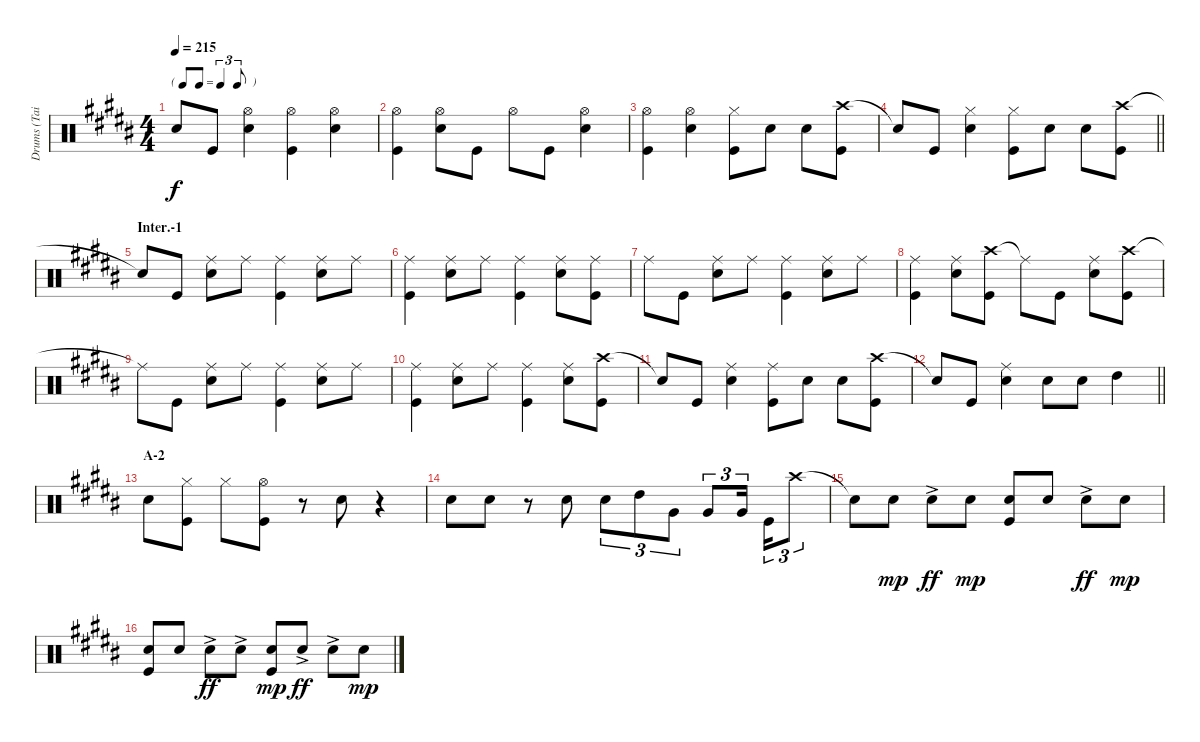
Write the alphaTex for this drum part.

\track ("Drums (Tainaka Ritsu)" "Drums (Tai") {instrument percussion}
\staff {score}
\articulation defaults
\ts (4 4)
\tf triplet8th
\tempo 215
\clef neutral
\ks b "Snare (hit)"{t}.8{dy f} "Kick (hit)".8
("Hi-Hat (open)" "Snare (hit) 2").4 ("Hi-Hat (open)" "Kick (hit)").4 ("Hi-Hat (open)" "Snare (hit) 2").4 |
("Hi-Hat (open)" "Kick (hit)").4 ("Hi-Hat (open)" "Snare (hit) 2").8 "Kick (hit)".8 "Hi-Hat (open)".8 "Kick (hit)".8 ("Hi-Hat (open)" "Snare (hit) 2").4 |
("Hi-Hat (open)" "Kick (hit)").4 ("Hi-Hat (open)" "Snare (hit) 2").4 ("Hi-Hat (closed)" "Kick (hit)").8 "Snare (hit) 2".8 "Snare (hit) 2".8 ("Crash high (hit)" "Kick (hit)").8 |
\barLineRight lightlight "Snare (hit)"{t}.8 "Kick (hit)".8
("Hi-Hat (closed)" "Snare (hit) 2").4 ("Hi-Hat (closed)" "Kick (hit)").8 "Snare (hit) 2".8 "Snare (hit) 2".8 ("Crash high (hit)" "Kick (hit)").8 |
\section ("" "Inter.-1")
"Snare (hit)"{t}.8 "Kick (hit)".8 ("Ride (middle)" "Snare (hit) 2").8 "Ride (middle)".8 ("Ride (middle)" "Kick (hit)").4 ("Ride (middle)" "Snare (hit) 2").8 "Ride (middle)".8 |
("Ride (middle)" "Kick (hit)").4 ("Ride (middle)" "Snare (hit) 2").8 "Ride (middle)".8 ("Ride (middle)" "Kick (hit)").4 ("Ride (middle)" "Snare (hit) 2").8 ("Ride (middle)" "Kick (hit)").8 |
"Ride (middle)".8 "Kick (hit)".8 ("Ride (middle)" "Snare (hit) 2").8 "Ride (middle)".8 ("Ride (middle)" "Kick (hit)").4 ("Ride (middle)" "Snare (hit) 2").8 "Ride (middle)".8 |
("Ride (middle)" "Kick (hit)").4 ("Ride (middle)" "Snare (hit) 2").8 ("Crash high (hit)" "Kick (hit)").8 "Ride (middle)"{t}.8 "Kick (hit)".8 ("Ride (middle)" "Snare (hit) 2").8 ("Crash high (hit)" "Kick (hit)").8 |
"Ride (middle)"{t}.8 "Kick (hit)".8 ("Ride (middle)" "Snare (hit) 2").8 "Ride (middle)".8 ("Ride (middle)" "Kick (hit)").4 ("Ride (middle)" "Snare (hit) 2").8 "Ride (middle)".8 |
("Ride (middle)" "Kick (hit)").4 ("Ride (middle)" "Snare (hit) 2").8 "Ride (middle)".8 ("Ride (middle)" "Kick (hit)").4 ("Ride (middle)" "Snare (hit) 2").8 ("Crash high (hit)" "Kick (hit)").8 |
"Snare (hit)"{t}.8 "Kick (hit)".8 ("Ride (middle)" "Snare (hit) 2").4 ("Ride (middle)" "Kick (hit)").8 "Snare (hit) 2".8 "Snare (hit) 2".8 ("Crash high (hit)" "Kick (hit)").8 |
\barLineRight lightlight "Snare (hit)"{t}.8 "Kick (hit)".8
("Ride (middle)" "Snare (hit) 2").4 "Snare (hit) 2".8 "Snare (hit) 2".8 "High Tom (hit)".4 |
\section ("" "A-2")
"Snare (hit) 2".8 ("Hi-Hat (closed)" "Kick (hit)").8 "Hi-Hat (closed)".8 ("Hi-Hat (open)" "Kick (hit)").8 r.8 "Snare (hit) 2".8 r.4 |
"Snare (hit) 2".8 "Snare (hit) 2".8 r.8 "Snare (hit) 2".8 "Snare (hit) 2".8{tu (3 2)} "High Tom (hit)".8{tu (3 2)} "Very Low Tom (hit)".8{tu (3 2)} "Very Low Tom (hit)".8{tu (3 2)} "Very Low Tom (hit)".16{tu (3 2) beam splitsecondary} "Kick (hit)".16{tu (3 2)} "Crash high (hit)".8{tu (3 2)} |
"Snare (hit)"{t}.8 "Snare (hit) 2".8{dy mp} "Snare (hit) 2"{ac}.8{dy ff} "Snare (hit) 2".8{dy mp} ("Snare (hit) 2" "Kick (hit)").8 "Snare (hit) 2".8 "Snare (hit) 2"{ac}.8{dy ff} "Snare (hit) 2".8{dy mp} |
("Snare (hit) 2" "Kick (hit)").8 "Snare (hit) 2".8 "Snare (hit) 2"{ac}.8{dy ff} "Snare (hit) 2"{ac}.8 ("Snare (hit) 2" "Kick (hit)").8{dy mp} "Snare (hit) 2"{ac}.8{dy ff} "Snare (hit) 2"{ac}.8 "Snare (hit) 2".8{dy mp}
